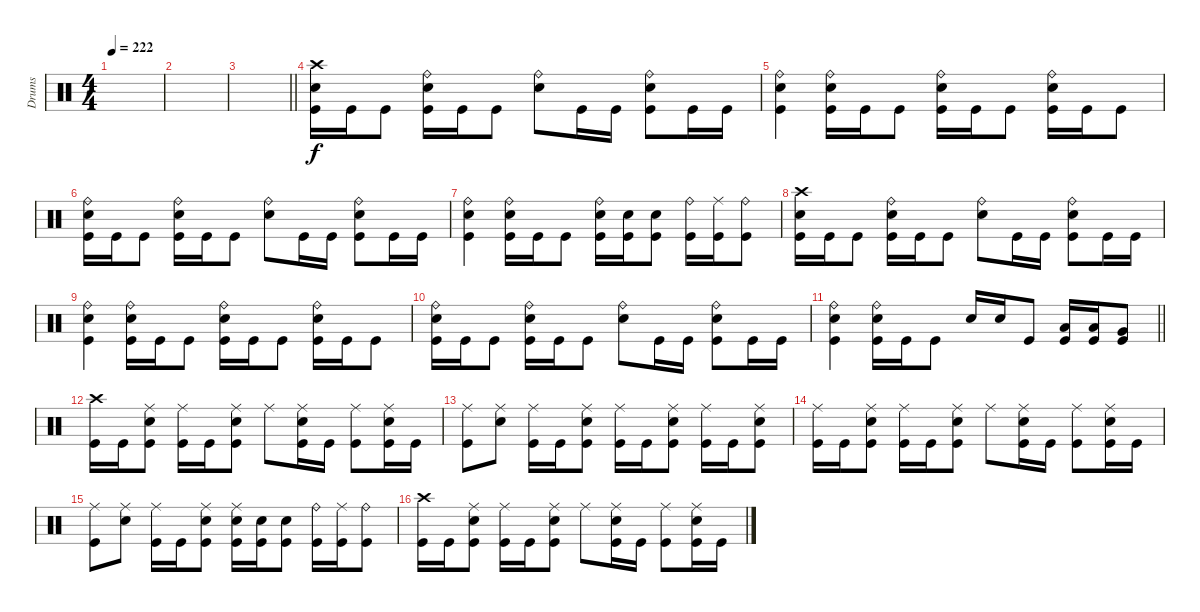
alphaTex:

\track ("Drums" "Drums") {instrument percussion}
\staff
\articulation defaults
\ts (4 4)
\tempo 222
\clef neutral
\ks c
|
|
\barLineRight lightlight
|
\section ("" "")
("Crash high (hit)" "Electric Snare (hit)" "Kick (hit)").16 "Kick (hit)".16 "Kick (hit)".8 ("Ride (bell)" "Electric Snare (hit)" "Kick (hit)").16 "Kick (hit)".16 "Kick (hit)".8 ("Ride (bell)" "Electric Snare (hit)").8 "Kick (hit)".16 "Kick (hit)".16 ("Ride (bell)" "Electric Snare (hit)" "Kick (hit)").8 "Kick (hit)".16 "Kick (hit)".16 |
("Ride (bell)" "Electric Snare (hit)" "Kick (hit)").4 ("Ride (bell)" "Electric Snare (hit)" "Kick (hit)").16 "Kick (hit)".16 "Kick (hit)".8 ("Ride (bell)" "Electric Snare (hit)" "Kick (hit)").16 "Kick (hit)".16 "Kick (hit)".8 ("Ride (bell)" "Electric Snare (hit)" "Kick (hit)").16 "Kick (hit)".16 "Kick (hit)".8 |
("Ride (bell)" "Electric Snare (hit)" "Kick (hit)").16 "Kick (hit)".16 "Kick (hit)".8 ("Ride (bell)" "Electric Snare (hit)" "Kick (hit)").16 "Kick (hit)".16 "Kick (hit)".8 ("Ride (bell)" "Electric Snare (hit)").8 "Kick (hit)".16 "Kick (hit)".16 ("Ride (bell)" "Electric Snare (hit)" "Kick (hit)").8 "Kick (hit)".16 "Kick (hit)".16 |
("Ride (bell)" "Electric Snare (hit)" "Kick (hit)").4 ("Ride (bell)" "Electric Snare (hit)" "Kick (hit)").16 "Kick (hit)".16 "Kick (hit)".8 ("Ride (bell)" "Electric Snare (hit)" "Kick (hit)").16 ("Electric Snare (hit)" "Kick (hit)").16 ("Electric Snare (hit)" "Kick (hit)").8 ("Ride (bell)" "Kick (hit)").16 ("Ride (middle)" "Kick (hit)").16 ("Ride (bell)" "Kick (hit)").8 |
("Crash high (hit)" "Electric Snare (hit)" "Kick (hit)").16 "Kick (hit)".16 "Kick (hit)".8 ("Ride (bell)" "Electric Snare (hit)" "Kick (hit)").16 "Kick (hit)".16 "Kick (hit)".8 ("Ride (bell)" "Electric Snare (hit)").8 "Kick (hit)".16 "Kick (hit)".16 ("Ride (bell)" "Electric Snare (hit)" "Kick (hit)").8 "Kick (hit)".16 "Kick (hit)".16 |
("Ride (bell)" "Electric Snare (hit)" "Kick (hit)").4 ("Ride (bell)" "Electric Snare (hit)" "Kick (hit)").16 "Kick (hit)".16 "Kick (hit)".8 ("Ride (bell)" "Electric Snare (hit)" "Kick (hit)").16 "Kick (hit)".16 "Kick (hit)".8 ("Ride (bell)" "Electric Snare (hit)" "Kick (hit)").16 "Kick (hit)".16 "Kick (hit)".8 |
("Ride (bell)" "Electric Snare (hit)" "Kick (hit)").16 "Kick (hit)".16 "Kick (hit)".8 ("Ride (bell)" "Electric Snare (hit)" "Kick (hit)").16 "Kick (hit)".16 "Kick (hit)".8 ("Ride (bell)" "Electric Snare (hit)").8 "Kick (hit)".16 "Kick (hit)".16 ("Ride (bell)" "Electric Snare (hit)" "Kick (hit)").8 "Kick (hit)".16 "Kick (hit)".16 |
\barLineRight lightlight
("Ride (bell)" "Electric Snare (hit)" "Kick (hit)").4 ("Ride (bell)" "Electric Snare (hit)" "Kick (hit)").16 "Kick (hit)".16 "Kick (hit)".8 "Electric Snare (hit)".16 "Electric Snare (hit)".16 "Kick (hit)".8 ("Low Tom (hit)" "Kick (hit)").16 ("Low Tom (hit)" "Kick (hit)").16 ("Very Low Tom (hit)" "Kick (hit)").8 |
("Crash high (hit)" "Kick (hit)").16 "Kick (hit)".16 ("Ride (middle)" "Electric Snare (hit)" "Kick (hit)").8 ("Ride (middle)" "Kick (hit)").16 "Kick (hit)".16 ("Ride (middle)" "Electric Snare (hit)" "Kick (hit)").8 "Ride (middle)".8 ("Ride (middle)" "Electric Snare (hit)" "Kick (hit)").16 "Kick (hit)".16 ("Ride (middle)" "Kick (hit)").8 ("Ride (middle)" "Electric Snare (hit)" "Kick (hit)").16 "Kick (hit)".16 |
("Ride (middle)" "Kick (hit)").8 ("Ride (middle)" "Electric Snare (hit)").8 ("Ride (middle)" "Kick (hit)").16 "Kick (hit)".16 ("Ride (middle)" "Electric Snare (hit)" "Kick (hit)").8 ("Ride (middle)" "Kick (hit)").16 "Kick (hit)".16 ("Ride (middle)" "Electric Snare (hit)" "Kick (hit)").8 ("Ride (middle)" "Kick (hit)").16 "Kick (hit)".16 ("Ride (middle)" "Electric Snare (hit)" "Kick (hit)").8 |
("Ride (middle)" "Kick (hit)").16 "Kick (hit)".16 ("Ride (middle)" "Electric Snare (hit)" "Kick (hit)").8 ("Ride (middle)" "Kick (hit)").16 "Kick (hit)".16 ("Ride (middle)" "Electric Snare (hit)" "Kick (hit)").8 "Ride (middle)".8 ("Ride (middle)" "Electric Snare (hit)" "Kick (hit)").16 "Kick (hit)".16 ("Ride (middle)" "Kick (hit)").8 ("Ride (middle)" "Electric Snare (hit)" "Kick (hit)").16 "Kick (hit)".16 |
("Ride (middle)" "Kick (hit)").8 ("Ride (middle)" "Electric Snare (hit)").8 ("Ride (middle)" "Kick (hit)").16 "Kick (hit)".16 ("Ride (middle)" "Electric Snare (hit)" "Kick (hit)").8 ("Ride (middle)" "Electric Snare (hit)" "Kick (hit)").16 ("Electric Snare (hit)" "Kick (hit)").16 ("Electric Snare (hit)" "Kick (hit)").8 ("Ride (bell)" "Kick (hit)").16 ("Ride (middle)" "Kick (hit)").16 ("Ride (bell)" "Kick (hit)").8 |
("Crash high (hit)" "Kick (hit)").16 "Kick (hit)".16 ("Ride (middle)" "Electric Snare (hit)" "Kick (hit)").8 ("Ride (middle)" "Kick (hit)").16 "Kick (hit)".16 ("Ride (middle)" "Electric Snare (hit)" "Kick (hit)").8 "Ride (middle)".8 ("Ride (middle)" "Electric Snare (hit)" "Kick (hit)").16 "Kick (hit)".16 ("Ride (middle)" "Kick (hit)").8 ("Ride (middle)" "Electric Snare (hit)" "Kick (hit)").16 "Kick (hit)".16
